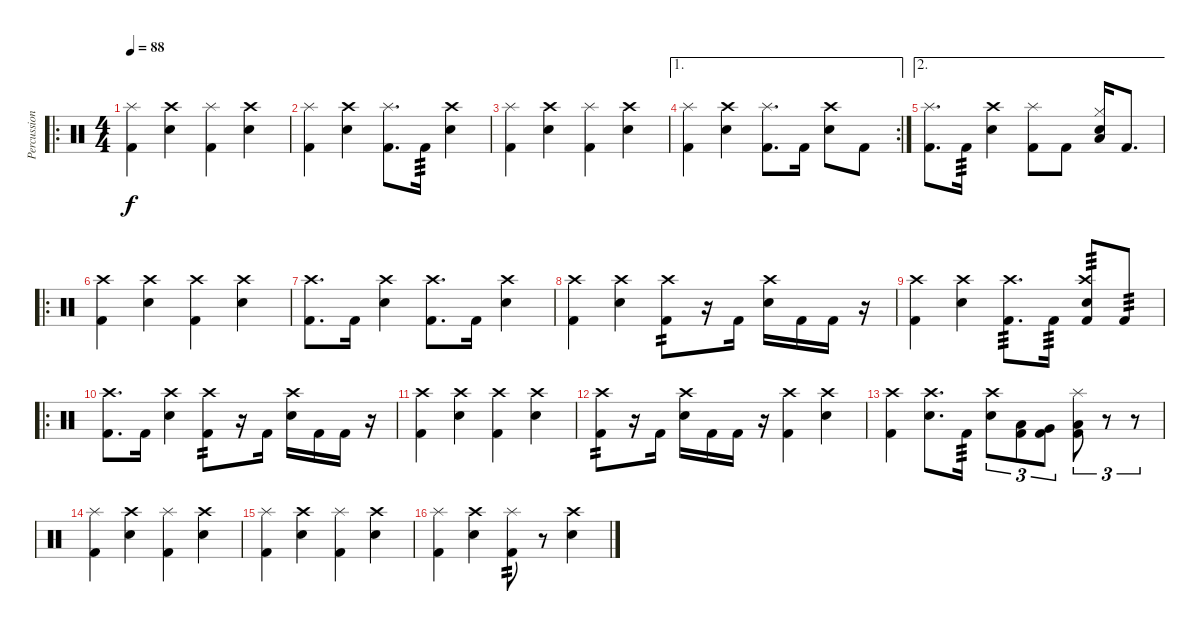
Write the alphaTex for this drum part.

\track ("Percussions" "Percussion") {instrument percussion}
\staff {score}
\articulation defaults
\ro
\ts (4 4)
\tempo 88
\clef neutral
\ks c
("Splash (hit)" "Kick (hit) 2").4{dy f} ("Crash high (hit)" "Electric Snare (hit)").4 ("Splash (hit)" "Kick (hit) 2").4 ("Crash high (hit)" "Electric Snare (hit)").4 |
("Splash (hit)" "Kick (hit) 2").4 ("Crash high (hit)" "Electric Snare (hit)").4 ("Splash (hit)" "Kick (hit) 2").8{d} "Kick (hit) 2".16{tp 3} ("Crash high (hit)" "Electric Snare (hit)").4 |
("Splash (hit)" "Kick (hit) 2").4 ("Crash high (hit)" "Electric Snare (hit)").4 ("Splash (hit)" "Kick (hit) 2").4 ("Crash high (hit)" "Electric Snare (hit)").4 |
\ae 1
\rc 2
("Splash (hit)" "Kick (hit) 2").4 ("Crash high (hit)" "Electric Snare (hit)").4 ("Splash (hit)" "Kick (hit) 2").8{d} "Kick (hit) 2".16 ("Crash high (hit)" "Electric Snare (hit)").8 "Kick (hit) 2".8 |
\ae 2
("Splash (hit)" "Kick (hit) 2").8{d} "Kick (hit) 2".16{tp 3} ("Crash high (hit)" "Electric Snare (hit)").4 ("Splash (hit)" "Kick (hit) 2").8 "Kick (hit) 2".8 ("Hi-Hat (closed)" "Low Floor Tom (hit)" "Electric Snare (hit)").16 "Kick (hit) 2".8{d} |
\ro
("Crash high (hit)" "Kick (hit) 2").4 ("Crash high (hit)" "Electric Snare (hit)").4 ("Crash high (hit)" "Kick (hit) 2").4 ("Crash high (hit)" "Electric Snare (hit)").4 |
("Crash high (hit)" "Kick (hit) 2").8{d} "Kick (hit) 2".16 ("Crash high (hit)" "Electric Snare (hit)").4 ("Crash high (hit)" "Kick (hit) 2").8{d} "Kick (hit) 2".16 ("Crash high (hit)" "Electric Snare (hit)").4 |
("Crash high (hit)" "Kick (hit) 2").4 ("Crash high (hit)" "Electric Snare (hit)").4 ("Crash high (hit)" "Kick (hit) 2").8{tp 2} r.16 "Kick (hit) 2".16 ("Crash high (hit)" "Electric Snare (hit)").16 "Kick (hit) 2".16 "Kick (hit) 2".16 r.16 |
("Crash high (hit)" "Kick (hit) 2").4 ("Crash high (hit)" "Electric Snare (hit)").4 ("Crash high (hit)" "Kick (hit) 2").8{d tp 3} "Kick (hit) 2".16{tp 3} ("Crash high (hit)" "Electric Snare (hit)" "Kick (hit) 2").8{tp 3} "Kick (hit) 2".8{tp 3} |
\ro
("Crash high (hit)" "Kick (hit) 2").8{d} "Kick (hit) 2".16 ("Crash high (hit)" "Electric Snare (hit)").4 ("Crash high (hit)" "Kick (hit) 2").8{tp 2} r.16 "Kick (hit) 2".16 ("Crash high (hit)" "Electric Snare (hit)").16 "Kick (hit) 2".16 "Kick (hit) 2".16 r.16 |
("Crash high (hit)" "Kick (hit) 2").4 ("Crash high (hit)" "Electric Snare (hit)").4 ("Crash high (hit)" "Kick (hit) 2").4 ("Crash high (hit)" "Electric Snare (hit)").4 |
("Crash high (hit)" "Kick (hit) 2").8{tp 2} r.16 "Kick (hit) 2".16 ("Crash high (hit)" "Electric Snare (hit)").16 "Kick (hit) 2".16 "Kick (hit) 2".16 r.16 ("Crash high (hit)" "Kick (hit) 2").4 ("Crash high (hit)" "Electric Snare (hit)").4 |
("Crash high (hit)" "Kick (hit) 2").4 ("Crash high (hit)" "Electric Snare (hit)").8{d} "Kick (hit) 2".16{tp 3} ("Crash high (hit)" "Electric Snare (hit)").8{tu (3 2)} ("Low Tom (hit)" "Kick (hit) 2").8{tu (3 2)} ("Very Low Tom (hit)" "Kick (hit) 2").8{tu (3 2)} ("Splash (hit)" "Low Floor Tom (hit)" "Kick (hit) 2").8{tu (3 2)} r.8{tu (3 2)} r.8{tu (3 2)} |
("Splash (hit)" "Kick (hit) 2").4 ("Crash high (hit)" "Electric Snare (hit)").4 ("Splash (hit)" "Kick (hit) 2").4 ("Crash high (hit)" "Electric Snare (hit)").4 |
("Splash (hit)" "Kick (hit) 2").4 ("Crash high (hit)" "Electric Snare (hit)").4 ("Splash (hit)" "Kick (hit) 2").4 ("Crash high (hit)" "Electric Snare (hit)").4 |
("Splash (hit)" "Kick (hit) 2").4 ("Crash high (hit)" "Electric Snare (hit)").4 ("Splash (hit)" "Kick (hit) 2").8{tp 2} r.8 ("Crash high (hit)" "Electric Snare (hit)").4
